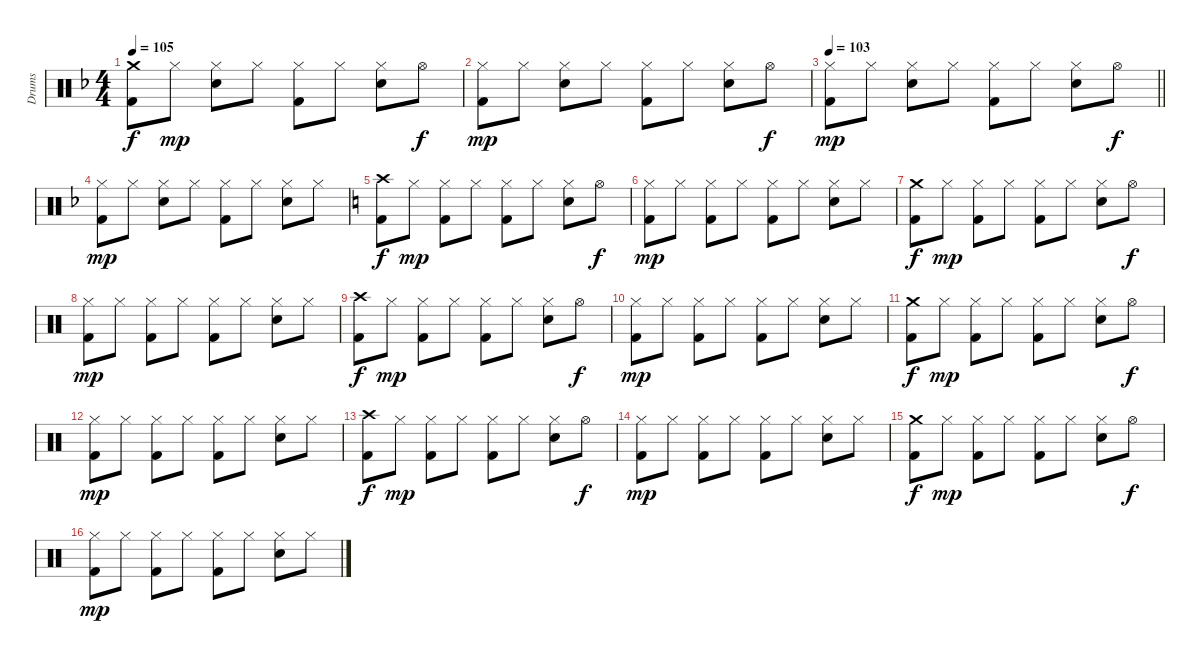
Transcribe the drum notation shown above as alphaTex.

\track ("Drums" "Drums") {instrument percussion}
\staff {score}
\articulation defaults
\ts (4 4)
\tempo 105
\clef neutral
\ks dminor
("Crash medium (hit)" "Kick (hit) 2").8{dy f} "Hi-Hat (closed)".8{dy mp} ("Hi-Hat (closed)" "Snare (hit) 2").8 "Hi-Hat (closed)".8 ("Hi-Hat (closed)" "Kick (hit) 2").8 "Hi-Hat (closed)".8 ("Hi-Hat (closed)" "Snare (hit) 2").8 "Hi-Hat (open)".8{dy f} |
("Hi-Hat (closed)" "Kick (hit) 2").8{dy mp} "Hi-Hat (closed)".8 ("Hi-Hat (closed)" "Snare (hit) 2").8 "Hi-Hat (closed)".8 ("Hi-Hat (closed)" "Kick (hit) 2").8 "Hi-Hat (closed)".8 ("Hi-Hat (closed)" "Snare (hit) 2").8 "Hi-Hat (open)".8{dy f} |
\tempo 103
\barLineRight lightlight
("Hi-Hat (closed)" "Kick (hit) 2").8{dy mp} "Hi-Hat (closed)".8 ("Hi-Hat (closed)" "Snare (hit) 2").8 "Hi-Hat (closed)".8 ("Hi-Hat (closed)" "Kick (hit) 2").8 "Hi-Hat (closed)".8 ("Hi-Hat (closed)" "Snare (hit) 2").8 "Hi-Hat (open)".8{dy f} |
("Hi-Hat (closed)" "Kick (hit) 2").8{dy mp} "Hi-Hat (closed)".8 ("Hi-Hat (closed)" "Snare (hit) 2").8 "Hi-Hat (closed)".8 ("Hi-Hat (closed)" "Kick (hit) 2").8 "Hi-Hat (closed)".8 ("Hi-Hat (closed)" "Snare (hit) 2").8 "Hi-Hat (closed)".8 |
\ks c
("Crash high (hit)" "Kick (hit) 2").8{dy f} "Hi-Hat (closed)".8{dy mp} ("Hi-Hat (closed)" "Kick (hit) 2").8 "Hi-Hat (closed)".8 ("Hi-Hat (closed)" "Kick (hit) 2").8 "Hi-Hat (closed)".8 ("Hi-Hat (closed)" "Snare (hit) 2").8 "Hi-Hat (open)".8{dy f} |
("Hi-Hat (closed)" "Kick (hit) 2").8{dy mp} "Hi-Hat (closed)".8 ("Hi-Hat (closed)" "Kick (hit) 2").8 "Hi-Hat (closed)".8 ("Hi-Hat (closed)" "Kick (hit) 2").8 "Hi-Hat (closed)".8 ("Hi-Hat (closed)" "Snare (hit) 2").8 "Hi-Hat (closed)".8 |
("Crash medium (hit)" "Kick (hit) 2").8{dy f} "Hi-Hat (closed)".8{dy mp} ("Hi-Hat (closed)" "Kick (hit) 2").8 "Hi-Hat (closed)".8 ("Hi-Hat (closed)" "Kick (hit) 2").8 "Hi-Hat (closed)".8 ("Hi-Hat (closed)" "Snare (hit) 2").8 "Hi-Hat (open)".8{dy f} |
("Hi-Hat (closed)" "Kick (hit) 2").8{dy mp} "Hi-Hat (closed)".8 ("Hi-Hat (closed)" "Kick (hit) 2").8 "Hi-Hat (closed)".8 ("Hi-Hat (closed)" "Kick (hit) 2").8 "Hi-Hat (closed)".8 ("Hi-Hat (closed)" "Snare (hit) 2").8 "Hi-Hat (closed)".8 |
("Crash high (hit)" "Kick (hit) 2").8{dy f} "Hi-Hat (closed)".8{dy mp} ("Hi-Hat (closed)" "Kick (hit) 2").8 "Hi-Hat (closed)".8 ("Hi-Hat (closed)" "Kick (hit) 2").8 "Hi-Hat (closed)".8 ("Hi-Hat (closed)" "Snare (hit) 2").8 "Hi-Hat (open)".8{dy f} |
("Hi-Hat (closed)" "Kick (hit) 2").8{dy mp} "Hi-Hat (closed)".8 ("Hi-Hat (closed)" "Kick (hit) 2").8 "Hi-Hat (closed)".8 ("Hi-Hat (closed)" "Kick (hit) 2").8 "Hi-Hat (closed)".8 ("Hi-Hat (closed)" "Snare (hit) 2").8 "Hi-Hat (closed)".8 |
("Crash medium (hit)" "Kick (hit) 2").8{dy f} "Hi-Hat (closed)".8{dy mp} ("Hi-Hat (closed)" "Kick (hit) 2").8 "Hi-Hat (closed)".8 ("Hi-Hat (closed)" "Kick (hit) 2").8 "Hi-Hat (closed)".8 ("Hi-Hat (closed)" "Snare (hit) 2").8 "Hi-Hat (open)".8{dy f} |
("Hi-Hat (closed)" "Kick (hit) 2").8{dy mp} "Hi-Hat (closed)".8 ("Hi-Hat (closed)" "Kick (hit) 2").8 "Hi-Hat (closed)".8 ("Hi-Hat (closed)" "Kick (hit) 2").8 "Hi-Hat (closed)".8 ("Hi-Hat (closed)" "Snare (hit) 2").8 "Hi-Hat (closed)".8 |
("Crash high (hit)" "Kick (hit) 2").8{dy f} "Hi-Hat (closed)".8{dy mp} ("Hi-Hat (closed)" "Kick (hit) 2").8 "Hi-Hat (closed)".8 ("Hi-Hat (closed)" "Kick (hit) 2").8 "Hi-Hat (closed)".8 ("Hi-Hat (closed)" "Snare (hit) 2").8 "Hi-Hat (open)".8{dy f} |
("Hi-Hat (closed)" "Kick (hit) 2").8{dy mp} "Hi-Hat (closed)".8 ("Hi-Hat (closed)" "Kick (hit) 2").8 "Hi-Hat (closed)".8 ("Hi-Hat (closed)" "Kick (hit) 2").8 "Hi-Hat (closed)".8 ("Hi-Hat (closed)" "Snare (hit) 2").8 "Hi-Hat (closed)".8 |
("Crash medium (hit)" "Kick (hit) 2").8{dy f} "Hi-Hat (closed)".8{dy mp} ("Hi-Hat (closed)" "Kick (hit) 2").8 "Hi-Hat (closed)".8 ("Hi-Hat (closed)" "Kick (hit) 2").8 "Hi-Hat (closed)".8 ("Hi-Hat (closed)" "Snare (hit) 2").8 "Hi-Hat (open)".8{dy f} |
("Hi-Hat (closed)" "Kick (hit) 2").8{dy mp} "Hi-Hat (closed)".8 ("Hi-Hat (closed)" "Kick (hit) 2").8 "Hi-Hat (closed)".8 ("Hi-Hat (closed)" "Kick (hit) 2").8 "Hi-Hat (closed)".8 ("Hi-Hat (closed)" "Snare (hit) 2").8 "Hi-Hat (closed)".8
